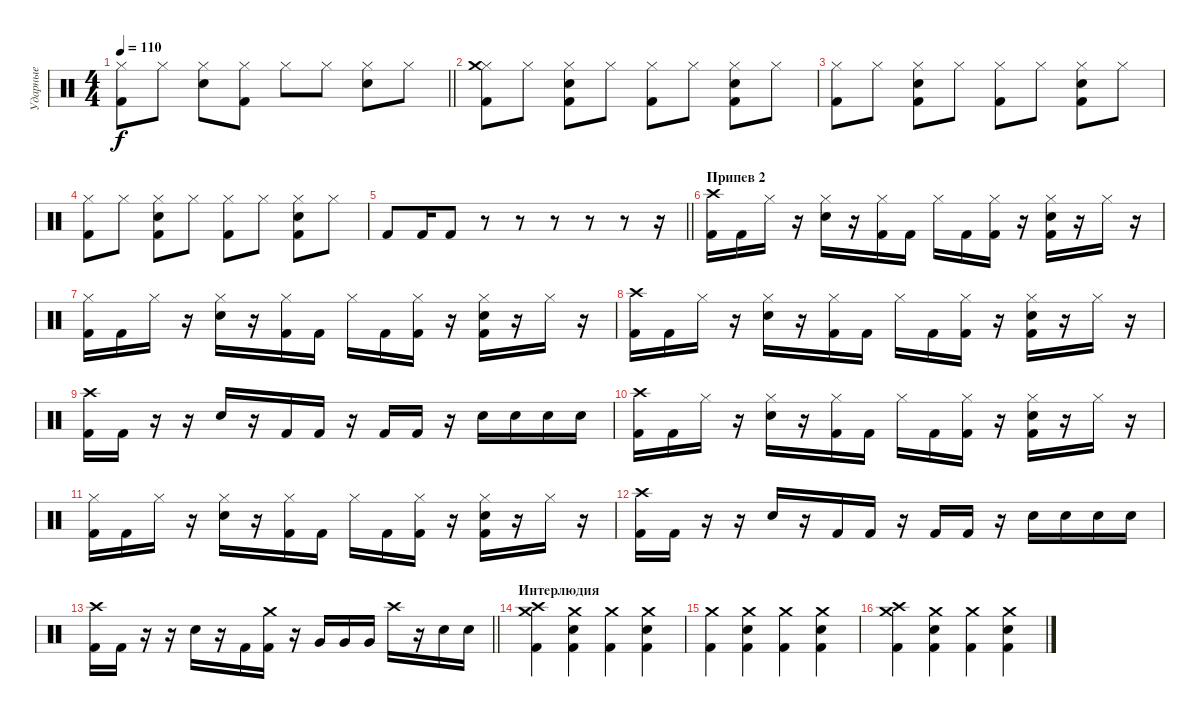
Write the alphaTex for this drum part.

\track ("Ударные" "Ударные") {instrument percussion}
\staff {score}
\articulation defaults
\ts (4 4)
\tempo 110
\clef neutral
\barLineRight lightlight
\ks c
("Hi-Hat (closed)" "Kick (hit) 2").8{dy f} "Hi-Hat (closed)".8 ("Electric Snare (hit)" "Hi-Hat (closed)").8 ("Hi-Hat (closed)" "Kick (hit) 2").8 "Hi-Hat (closed)".8 "Hi-Hat (closed)".8 ("Electric Snare (hit)" "Hi-Hat (closed)").8 "Hi-Hat (closed)".8 |
("Hi-Hat (closed)" "Kick (hit) 2" "Crash medium (hit)").8 "Hi-Hat (closed)".8 ("Hi-Hat (closed)" "Electric Snare (hit)" "Kick (hit) 2").8 "Hi-Hat (closed)".8 ("Hi-Hat (closed)" "Kick (hit) 2").8 "Hi-Hat (closed)".8 ("Hi-Hat (closed)" "Electric Snare (hit)" "Kick (hit) 2").8 "Hi-Hat (closed)".8 |
("Hi-Hat (closed)" "Kick (hit) 2").8 "Hi-Hat (closed)".8 ("Hi-Hat (closed)" "Electric Snare (hit)" "Kick (hit) 2").8 "Hi-Hat (closed)".8 ("Hi-Hat (closed)" "Kick (hit) 2").8 "Hi-Hat (closed)".8 ("Hi-Hat (closed)" "Electric Snare (hit)" "Kick (hit) 2").8 "Hi-Hat (closed)".8 |
("Hi-Hat (closed)" "Kick (hit) 2").8 "Hi-Hat (closed)".8 ("Hi-Hat (closed)" "Electric Snare (hit)" "Kick (hit) 2").8 "Hi-Hat (closed)".8 ("Hi-Hat (closed)" "Kick (hit) 2").8 "Hi-Hat (closed)".8 ("Hi-Hat (closed)" "Electric Snare (hit)" "Kick (hit) 2").8 "Hi-Hat (closed)".8 |
\barLineRight lightlight "Kick (hit) 2".8 "Kick (hit) 2".16 "Kick (hit) 2".8
r.8 r.8 r.8 r.8 r.8 r.16 |
\section ("" "Припев 2")
("Crash high (hit)" "Kick (hit) 2").16 "Kick (hit) 2".16 "Hi-Hat (closed)".16 r.16 ("Hi-Hat (closed)" "Electric Snare (hit)").16 r.16 ("Hi-Hat (closed)" "Kick (hit) 2").16 "Kick (hit) 2".16 "Hi-Hat (closed)".16 "Kick (hit) 2".16 ("Hi-Hat (closed)" "Kick (hit) 2").16 r.16 ("Hi-Hat (closed)" "Electric Snare (hit)" "Kick (hit) 2").16 r.16 "Hi-Hat (closed)".16 r.16 |
("Hi-Hat (closed)" "Kick (hit) 2").16 "Kick (hit) 2".16 "Hi-Hat (closed)".16 r.16 ("Hi-Hat (closed)" "Electric Snare (hit)").16 r.16 ("Hi-Hat (closed)" "Kick (hit) 2").16 "Kick (hit) 2".16 "Hi-Hat (closed)".16 "Kick (hit) 2".16 ("Hi-Hat (closed)" "Kick (hit) 2").16 r.16 ("Hi-Hat (closed)" "Electric Snare (hit)" "Kick (hit) 2").16 r.16 "Hi-Hat (closed)".16 r.16 |
("Crash high (hit)" "Kick (hit) 2").16 "Kick (hit) 2".16 "Hi-Hat (closed)".16 r.16 ("Hi-Hat (closed)" "Electric Snare (hit)").16 r.16 ("Hi-Hat (closed)" "Kick (hit) 2").16 "Kick (hit) 2".16 "Hi-Hat (closed)".16 "Kick (hit) 2".16 ("Hi-Hat (closed)" "Kick (hit) 2").16 r.16 ("Hi-Hat (closed)" "Electric Snare (hit)" "Kick (hit) 2").16 r.16 "Hi-Hat (closed)".16 r.16 |
("Crash high (hit)" "Kick (hit) 2").16 "Kick (hit) 2".16 r.16 r.16 "Electric Snare (hit)".16 r.16 "Kick (hit) 2".16 "Kick (hit) 2".16 r.16 "Kick (hit) 2".16 "Kick (hit) 2".16 r.16 "Electric Snare (hit)".16 "Electric Snare (hit)".16 "Electric Snare (hit)".16 "Electric Snare (hit)".16 |
("Crash high (hit)" "Kick (hit) 2").16 "Kick (hit) 2".16 "Hi-Hat (closed)".16 r.16 ("Hi-Hat (closed)" "Electric Snare (hit)").16 r.16 ("Hi-Hat (closed)" "Kick (hit) 2").16 "Kick (hit) 2".16 "Hi-Hat (closed)".16 "Kick (hit) 2".16 ("Hi-Hat (closed)" "Kick (hit) 2").16 r.16 ("Hi-Hat (closed)" "Electric Snare (hit)" "Kick (hit) 2").16 r.16 "Hi-Hat (closed)".16 r.16 |
("Hi-Hat (closed)" "Kick (hit) 2").16 "Kick (hit) 2".16 "Hi-Hat (closed)".16 r.16 ("Hi-Hat (closed)" "Electric Snare (hit)").16 r.16 ("Hi-Hat (closed)" "Kick (hit) 2").16 "Kick (hit) 2".16 "Hi-Hat (closed)".16 "Kick (hit) 2".16 ("Hi-Hat (closed)" "Kick (hit) 2").16 r.16 ("Hi-Hat (closed)" "Electric Snare (hit)" "Kick (hit) 2").16 r.16 "Hi-Hat (closed)".16 r.16 |
("Crash high (hit)" "Kick (hit) 2").16 "Kick (hit) 2".16 r.16 r.16 "Electric Snare (hit)".16 r.16 "Kick (hit) 2".16 "Kick (hit) 2".16 r.16 "Kick (hit) 2".16 "Kick (hit) 2".16 r.16 "Electric Snare (hit)".16 "Electric Snare (hit)".16 "Electric Snare (hit)".16 "Electric Snare (hit)".16 |
\barLineRight lightlight
("Crash high (hit)" "Kick (hit) 2").16 "Kick (hit) 2".16 r.16 r.16 "Electric Snare (hit)".16 r.16 "Kick (hit) 2".16 ("Crash medium (hit)" "Kick (hit) 2").16 r.16 "Very Low Tom (hit)".16 "Very Low Tom (hit)".16 "Very Low Tom (hit)".16 "Crash high (hit)".16 r.16 "Electric Snare (hit)".16 "Electric Snare (hit)".16 |
\section ("" "Интерлюдия")
("Crash high (hit)" "Crash medium (hit)" "Kick (hit) 2").4 ("Crash medium (hit)" "Electric Snare (hit)" "Kick (hit) 2").4 ("Crash medium (hit)" "Kick (hit) 2").4 ("Crash medium (hit)" "Electric Snare (hit)" "Kick (hit) 2").4 |
("Crash medium (hit)" "Kick (hit) 2").4 ("Crash medium (hit)" "Electric Snare (hit)" "Kick (hit) 2").4 ("Crash medium (hit)" "Kick (hit) 2").4 ("Crash medium (hit)" "Electric Snare (hit)" "Kick (hit) 2").4 |
("Crash high (hit)" "Crash medium (hit)" "Kick (hit) 2").4 ("Crash medium (hit)" "Electric Snare (hit)" "Kick (hit) 2").4 ("Crash medium (hit)" "Kick (hit) 2").4 ("Crash medium (hit)" "Electric Snare (hit)" "Kick (hit) 2").4
